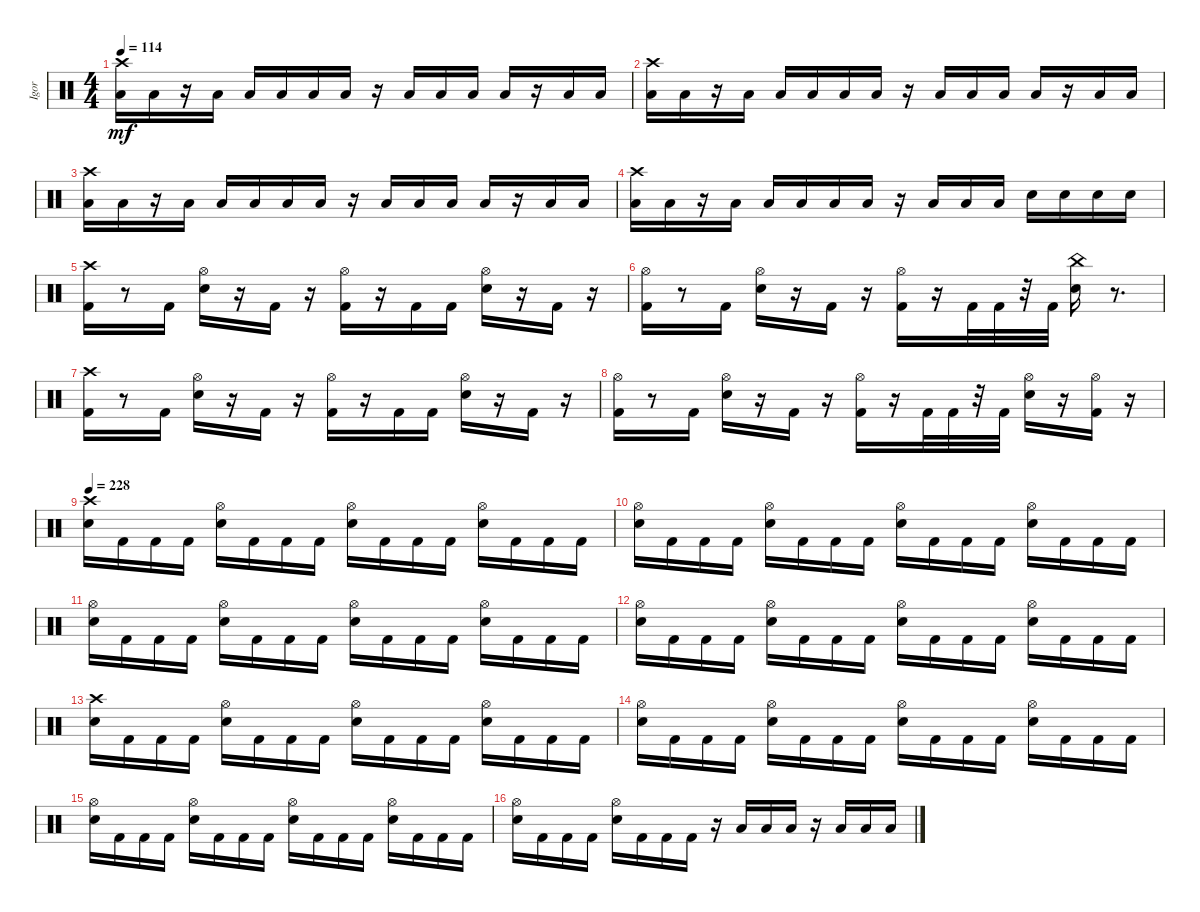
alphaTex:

\track ("Igor" "Igor") {instrument percussion}
\staff {score}
\articulation defaults
\ts (4 4)
\tempo 114
\clef neutral
\ks c
("Crash high (hit)" "Low Floor Tom (hit)").16{dy mf} "Low Tom (hit)".16 r.16 "Low Tom (hit)".16 "Low Tom (hit)".16 "Low Tom (hit)".16 "Low Floor Tom (hit)".16 "Low Tom (hit)".16 r.16 "Low Tom (hit)".16 "Low Tom (hit)".16 "Low Tom (hit)".16 "Low Floor Tom (hit)".16 r.16 "Low Tom (hit)".16 "Low Tom (hit)".16 |
("Crash high (hit)" "Low Floor Tom (hit)").16 "Low Tom (hit)".16 r.16 "Low Tom (hit)".16 "Low Tom (hit)".16 "Low Tom (hit)".16 "Low Floor Tom (hit)".16 "Low Tom (hit)".16 r.16 "Low Tom (hit)".16 "Low Tom (hit)".16 "Low Tom (hit)".16 "Low Floor Tom (hit)".16 r.16 "Low Tom (hit)".16 "Low Tom (hit)".16 |
("Crash high (hit)" "Low Floor Tom (hit)").16 "Low Tom (hit)".16 r.16 "Low Tom (hit)".16 "Low Tom (hit)".16 "Low Tom (hit)".16 "Low Floor Tom (hit)".16 "Low Tom (hit)".16 r.16 "Low Tom (hit)".16 "Low Tom (hit)".16 "Low Tom (hit)".16 "Low Floor Tom (hit)".16 r.16 "Low Tom (hit)".16 "Low Tom (hit)".16 |
("Crash high (hit)" "Low Floor Tom (hit)").16 "Low Tom (hit)".16 r.16 "Low Tom (hit)".16 "Low Tom (hit)".16 "Low Tom (hit)".16 "Low Floor Tom (hit)".16 "Low Tom (hit)".16 r.16 "Low Tom (hit)".16 "Low Tom (hit)".16 "Low Tom (hit)".16 "Snare (hit) 2".16 "Snare (hit) 2".16 "Snare (hit) 2".16 "Snare (hit) 2".16 |
("Kick (hit) 2" "Crash high (hit)").16 r.8 "Kick (hit) 2".16 ("Snare (hit) 2" "Hi-Hat (open)").16 r.16 "Kick (hit) 2".16 r.16 ("Hi-Hat (open)" "Kick (hit) 2").16 r.16 "Kick (hit) 2".16 "Kick (hit) 2".16 ("Hi-Hat (open)" "Snare (hit) 2").16 r.16 "Kick (hit) 2".16 r.16 |
("Kick (hit) 2" "Hi-Hat (open)").16 r.8 "Kick (hit) 2".16 ("Snare (hit) 2" "Hi-Hat (open)").16 r.16 "Kick (hit) 2".16 r.16 ("Hi-Hat (open)" "Kick (hit) 2").16 r.16 "Kick (hit) 2".32 "Kick (hit) 2".32 r.32 "Kick (hit) 2".32 ("Snare (hit) 2" "China (hit)").16 r.8{d} |
("Kick (hit) 2" "Crash high (hit)").16 r.8 "Kick (hit) 2".16 ("Snare (hit) 2" "Hi-Hat (open)").16 r.16 "Kick (hit) 2".16 r.16 ("Hi-Hat (open)" "Kick (hit) 2").16 r.16 "Kick (hit) 2".16 "Kick (hit) 2".16 ("Hi-Hat (open)" "Snare (hit) 2").16 r.16 "Kick (hit) 2".16 r.16 |
("Kick (hit) 2" "Hi-Hat (open)").16 r.8 "Kick (hit) 2".16 ("Snare (hit) 2" "Hi-Hat (open)").16 r.16 "Kick (hit) 2".16 r.16 ("Hi-Hat (open)" "Kick (hit) 2").16 r.16 "Kick (hit) 2".32 "Kick (hit) 2".32 r.32 "Kick (hit) 2".32 ("Snare (hit) 2" "Hi-Hat (open)").16 r.16 ("Hi-Hat (open)" "Kick (hit) 2").16 r.16 |
\tempo 228
("Snare (hit) 2" "Crash high (hit)").16 "Kick (hit) 2".16 "Kick (hit) 2".16 "Kick (hit) 2".16 ("Snare (hit) 2" "Hi-Hat (open)").16 "Kick (hit) 2".16 "Kick (hit) 2".16 "Kick (hit) 2".16 ("Snare (hit) 2" "Hi-Hat (open)").16 "Kick (hit) 2".16 "Kick (hit) 2".16 "Kick (hit) 2".16 ("Snare (hit) 2" "Hi-Hat (open)").16 "Kick (hit) 2".16 "Kick (hit) 2".16 "Kick (hit) 2".16 |
("Snare (hit) 2" "Hi-Hat (open)").16 "Kick (hit) 2".16 "Kick (hit) 2".16 "Kick (hit) 2".16 ("Snare (hit) 2" "Hi-Hat (open)").16 "Kick (hit) 2".16 "Kick (hit) 2".16 "Kick (hit) 2".16 ("Snare (hit) 2" "Hi-Hat (open)").16 "Kick (hit) 2".16 "Kick (hit) 2".16 "Kick (hit) 2".16 ("Snare (hit) 2" "Hi-Hat (open)").16 "Kick (hit) 2".16 "Kick (hit) 2".16 "Kick (hit) 2".16 |
("Snare (hit) 2" "Hi-Hat (open)").16 "Kick (hit) 2".16 "Kick (hit) 2".16 "Kick (hit) 2".16 ("Snare (hit) 2" "Hi-Hat (open)").16 "Kick (hit) 2".16 "Kick (hit) 2".16 "Kick (hit) 2".16 ("Snare (hit) 2" "Hi-Hat (open)").16 "Kick (hit) 2".16 "Kick (hit) 2".16 "Kick (hit) 2".16 ("Snare (hit) 2" "Hi-Hat (open)").16 "Kick (hit) 2".16 "Kick (hit) 2".16 "Kick (hit) 2".16 |
("Snare (hit) 2" "Hi-Hat (open)").16 "Kick (hit) 2".16 "Kick (hit) 2".16 "Kick (hit) 2".16 ("Snare (hit) 2" "Hi-Hat (open)").16 "Kick (hit) 2".16 "Kick (hit) 2".16 "Kick (hit) 2".16 ("Snare (hit) 2" "Hi-Hat (open)").16 "Kick (hit) 2".16 "Kick (hit) 2".16 "Kick (hit) 2".16 ("Snare (hit) 2" "Hi-Hat (open)").16 "Kick (hit) 2".16 "Kick (hit) 2".16 "Kick (hit) 2".16 |
("Snare (hit) 2" "Crash high (hit)").16 "Kick (hit) 2".16 "Kick (hit) 2".16 "Kick (hit) 2".16 ("Snare (hit) 2" "Hi-Hat (open)").16 "Kick (hit) 2".16 "Kick (hit) 2".16 "Kick (hit) 2".16 ("Snare (hit) 2" "Hi-Hat (open)").16 "Kick (hit) 2".16 "Kick (hit) 2".16 "Kick (hit) 2".16 ("Snare (hit) 2" "Hi-Hat (open)").16 "Kick (hit) 2".16 "Kick (hit) 2".16 "Kick (hit) 2".16 |
("Snare (hit) 2" "Hi-Hat (open)").16 "Kick (hit) 2".16 "Kick (hit) 2".16 "Kick (hit) 2".16 ("Snare (hit) 2" "Hi-Hat (open)").16 "Kick (hit) 2".16 "Kick (hit) 2".16 "Kick (hit) 2".16 ("Snare (hit) 2" "Hi-Hat (open)").16 "Kick (hit) 2".16 "Kick (hit) 2".16 "Kick (hit) 2".16 ("Snare (hit) 2" "Hi-Hat (open)").16 "Kick (hit) 2".16 "Kick (hit) 2".16 "Kick (hit) 2".16 |
("Snare (hit) 2" "Hi-Hat (open)").16 "Kick (hit) 2".16 "Kick (hit) 2".16 "Kick (hit) 2".16 ("Snare (hit) 2" "Hi-Hat (open)").16 "Kick (hit) 2".16 "Kick (hit) 2".16 "Kick (hit) 2".16 ("Snare (hit) 2" "Hi-Hat (open)").16 "Kick (hit) 2".16 "Kick (hit) 2".16 "Kick (hit) 2".16 ("Snare (hit) 2" "Hi-Hat (open)").16 "Kick (hit) 2".16 "Kick (hit) 2".16 "Kick (hit) 2".16 |
("Snare (hit) 2" "Hi-Hat (open)").16 "Kick (hit) 2".16 "Kick (hit) 2".16 "Kick (hit) 2".16 ("Snare (hit) 2" "Hi-Hat (open)").16 "Kick (hit) 2".16 "Kick (hit) 2".16 "Kick (hit) 2".16 r.16 "Low Tom (hit)".16 "Low Tom (hit)".16 "Low Tom (hit)".16 r.16 "Low Floor Tom (hit)".16 "Low Floor Tom (hit)".16 "Low Floor Tom (hit)".16
